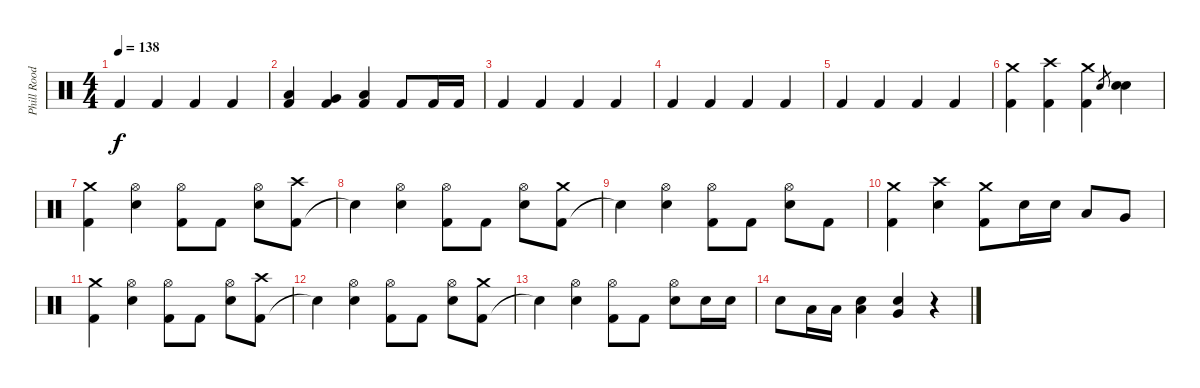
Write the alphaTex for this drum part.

\track ("Phill Rood" "Phill Rood") {instrument percussion}
\staff {score}
\articulation defaults
\ts (4 4)
\tempo 138
\clef neutral
\ks c "Kick (hit) 2".4{dy f} "Kick (hit) 2".4 "Kick (hit) 2".4 "Kick (hit) 2".4
|
("Kick (hit) 2" "Low Tom (hit)").4 ("Kick (hit) 2" "Very Low Tom (hit)").4 ("Kick (hit) 2" "Low Tom (hit)").4 "Kick (hit) 2".8 "Kick (hit) 2".16 "Kick (hit) 2".16 |
"Kick (hit) 2".4 "Kick (hit) 2".4 "Kick (hit) 2".4 "Kick (hit) 2".4 |
"Kick (hit) 2".4 "Kick (hit) 2".4 "Kick (hit) 2".4 "Kick (hit) 2".4 |
"Kick (hit) 2".4 "Kick (hit) 2".4 "Kick (hit) 2".4 "Kick (hit) 2".4 |
("Kick (hit) 2" "Crash medium (hit)").4 ("Kick (hit) 2" "Crash high (hit)").4 ("Kick (hit) 2" "Crash medium (hit)").4 "Snare (hit) 2".8{gr} ("Snare (hit) 2" "Snare (hit) 2").4 |
("Kick (hit) 2" "Crash medium (hit)").4 ("Snare (hit) 2" "Hi-Hat (open)").4 ("Kick (hit) 2" "Hi-Hat (open)").8 "Kick (hit) 2".8 ("Snare (hit) 2" "Hi-Hat (open)").8 ("Kick (hit) 2" "Crash high (hit)").8 |
"Snare (hit)"{t}.4 ("Snare (hit) 2" "Hi-Hat (open)").4 ("Kick (hit) 2" "Hi-Hat (open)").8 "Kick (hit) 2".8 ("Snare (hit) 2" "Hi-Hat (open)").8 ("Kick (hit) 2" "Crash medium (hit)").8 |
"Snare (hit)"{t}.4 ("Snare (hit) 2" "Hi-Hat (open)").4 ("Kick (hit) 2" "Hi-Hat (open)").8 "Kick (hit) 2".8 ("Snare (hit) 2" "Hi-Hat (open)").8 "Kick (hit) 2".8 |
("Kick (hit) 2" "Crash medium (hit)").4 ("Snare (hit) 2" "Crash high (hit)").4 ("Kick (hit) 2" "Crash medium (hit)").8 "Snare (hit) 2".16 "Snare (hit) 2".16 "Low Tom (hit)".8 "Very Low Tom (hit)".8 |
("Kick (hit) 2" "Crash medium (hit)").4 ("Snare (hit) 2" "Hi-Hat (open)").4 ("Kick (hit) 2" "Hi-Hat (open)").8 "Kick (hit) 2".8 ("Snare (hit) 2" "Hi-Hat (open)").8 ("Kick (hit) 2" "Crash high (hit)").8 |
"Snare (hit)"{t}.4 ("Snare (hit) 2" "Hi-Hat (open)").4 ("Kick (hit) 2" "Hi-Hat (open)").8 "Kick (hit) 2".8 ("Snare (hit) 2" "Hi-Hat (open)").8 ("Kick (hit) 2" "Crash medium (hit)").8 |
"Snare (hit)"{t}.4 ("Snare (hit) 2" "Hi-Hat (open)").4 ("Kick (hit) 2" "Hi-Hat (open)").8 "Kick (hit) 2".8 ("Snare (hit) 2" "Hi-Hat (open)").8 "Snare (hit) 2".16 "Snare (hit) 2".16 |
"Snare (hit) 2".8 "Low Tom (hit)".16 "Low Tom (hit)".16 ("Snare (hit) 2" "Low Tom (hit)").4 ("Snare (hit) 2" "Very Low Tom (hit)").4 r.4
